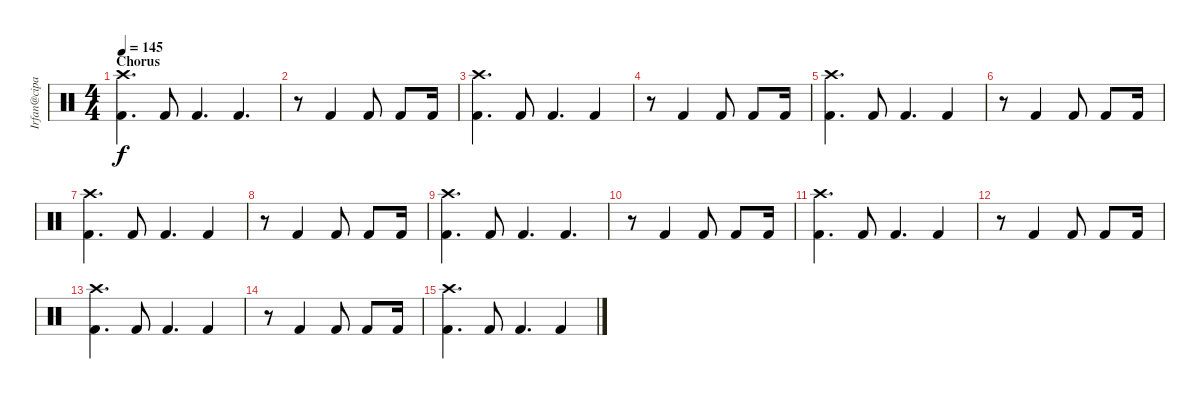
\track ("Irfan@cipan" "Irfan@cipa") {instrument percussion}
\staff {score}
\articulation defaults
\ts (4 4)
\section ("" "Chorus")
\tempo 145
\clef neutral
\ks c
("Crash high (hit)" "Kick (hit) 2").4{d dy f} "Kick (hit) 2".8 "Kick (hit) 2".4{d} "Kick (hit) 2".4{d} |
r.8 "Kick (hit) 2".4 "Kick (hit) 2".8 "Kick (hit) 2".8 "Kick (hit) 2".16 |
("Crash high (hit)" "Kick (hit) 2").4{d} "Kick (hit) 2".8 "Kick (hit) 2".4{d} "Kick (hit) 2".4 |
r.8 "Kick (hit) 2".4 "Kick (hit) 2".8 "Kick (hit) 2".8 "Kick (hit) 2".16 |
("Crash high (hit)" "Kick (hit) 2").4{d} "Kick (hit) 2".8 "Kick (hit) 2".4{d} "Kick (hit) 2".4 |
r.8 "Kick (hit) 2".4 "Kick (hit) 2".8 "Kick (hit) 2".8 "Kick (hit) 2".16 |
("Crash high (hit)" "Kick (hit) 2").4{d} "Kick (hit) 2".8 "Kick (hit) 2".4{d} "Kick (hit) 2".4 |
r.8 "Kick (hit) 2".4 "Kick (hit) 2".8 "Kick (hit) 2".8 "Kick (hit) 2".16 |
("Crash high (hit)" "Kick (hit) 2").4{d} "Kick (hit) 2".8 "Kick (hit) 2".4{d} "Kick (hit) 2".4{d} |
r.8 "Kick (hit) 2".4 "Kick (hit) 2".8 "Kick (hit) 2".8 "Kick (hit) 2".16 |
("Crash high (hit)" "Kick (hit) 2").4{d} "Kick (hit) 2".8 "Kick (hit) 2".4{d} "Kick (hit) 2".4 |
r.8 "Kick (hit) 2".4 "Kick (hit) 2".8 "Kick (hit) 2".8 "Kick (hit) 2".16 |
("Crash high (hit)" "Kick (hit) 2").4{d} "Kick (hit) 2".8 "Kick (hit) 2".4{d} "Kick (hit) 2".4 |
r.8 "Kick (hit) 2".4 "Kick (hit) 2".8 "Kick (hit) 2".8 "Kick (hit) 2".16 |
("Crash high (hit)" "Kick (hit) 2").4{d} "Kick (hit) 2".8 "Kick (hit) 2".4{d} "Kick (hit) 2".4
